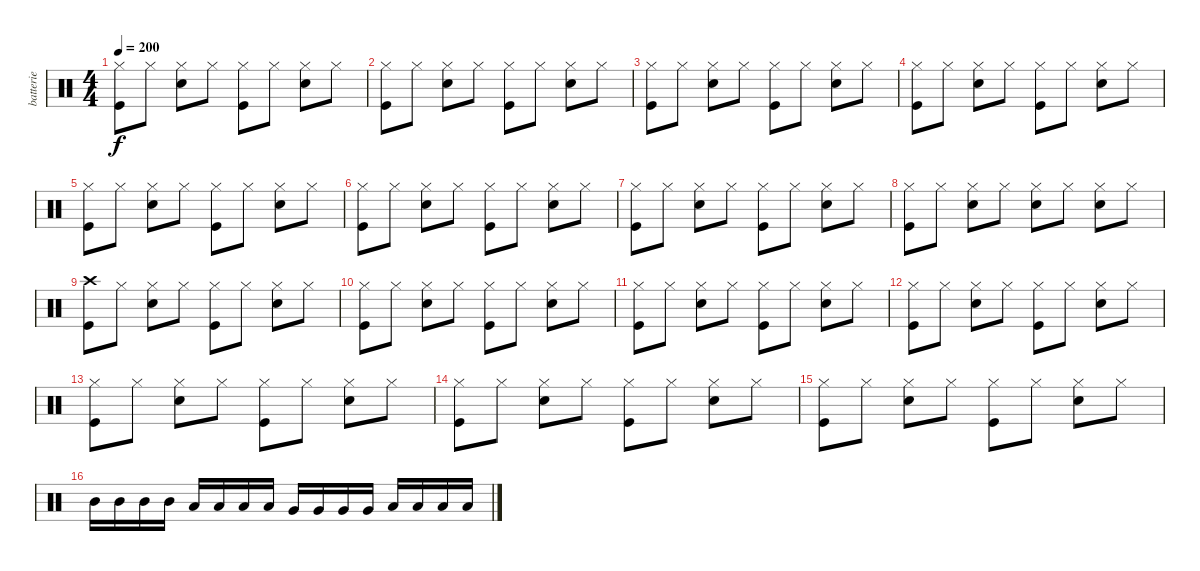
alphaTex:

\track ("batterie" "batterie") {instrument percussion}
\staff {score}
\articulation defaults
\ts (4 4)
\tempo 200
\clef neutral
\ks c
("Hi-Hat (closed)" "Kick (hit)").8{dy f} "Hi-Hat (closed)".8 ("Hi-Hat (closed)" "Electric Snare (hit)").8 "Hi-Hat (closed)".8 ("Hi-Hat (closed)" "Kick (hit)").8 "Hi-Hat (closed)".8 ("Hi-Hat (closed)" "Electric Snare (hit)").8 "Hi-Hat (closed)".8 |
("Hi-Hat (closed)" "Kick (hit)").8 "Hi-Hat (closed)".8 ("Hi-Hat (closed)" "Electric Snare (hit)").8 "Hi-Hat (closed)".8 ("Hi-Hat (closed)" "Kick (hit)").8 "Hi-Hat (closed)".8 ("Hi-Hat (closed)" "Electric Snare (hit)").8 "Hi-Hat (closed)".8 |
("Hi-Hat (closed)" "Kick (hit)").8 "Hi-Hat (closed)".8 ("Hi-Hat (closed)" "Electric Snare (hit)").8 "Hi-Hat (closed)".8 ("Hi-Hat (closed)" "Kick (hit)").8 "Hi-Hat (closed)".8 ("Hi-Hat (closed)" "Electric Snare (hit)").8 "Hi-Hat (closed)".8 |
("Hi-Hat (closed)" "Kick (hit)").8 "Hi-Hat (closed)".8 ("Hi-Hat (closed)" "Electric Snare (hit)").8 "Hi-Hat (closed)".8 ("Hi-Hat (closed)" "Kick (hit)").8 "Hi-Hat (closed)".8 ("Hi-Hat (closed)" "Electric Snare (hit)").8 "Hi-Hat (closed)".8 |
("Hi-Hat (closed)" "Kick (hit)").8 "Hi-Hat (closed)".8 ("Hi-Hat (closed)" "Electric Snare (hit)").8 "Hi-Hat (closed)".8 ("Hi-Hat (closed)" "Kick (hit)").8 "Hi-Hat (closed)".8 ("Hi-Hat (closed)" "Electric Snare (hit)").8 "Hi-Hat (closed)".8 |
("Hi-Hat (closed)" "Kick (hit)").8 "Hi-Hat (closed)".8 ("Hi-Hat (closed)" "Electric Snare (hit)").8 "Hi-Hat (closed)".8 ("Hi-Hat (closed)" "Kick (hit)").8 "Hi-Hat (closed)".8 ("Hi-Hat (closed)" "Electric Snare (hit)").8 "Hi-Hat (closed)".8 |
("Hi-Hat (closed)" "Kick (hit)").8 "Hi-Hat (closed)".8 ("Hi-Hat (closed)" "Electric Snare (hit)").8 "Hi-Hat (closed)".8 ("Hi-Hat (closed)" "Kick (hit)").8 "Hi-Hat (closed)".8 ("Hi-Hat (closed)" "Electric Snare (hit)").8 "Hi-Hat (closed)".8 |
("Hi-Hat (closed)" "Kick (hit)").8 "Hi-Hat (closed)".8 ("Hi-Hat (closed)" "Electric Snare (hit)").8 "Hi-Hat (closed)".8 ("Hi-Hat (closed)" "Electric Snare (hit)").8 "Hi-Hat (closed)".8 ("Hi-Hat (closed)" "Electric Snare (hit)").8 "Hi-Hat (closed)".8 |
("Crash high (hit)" "Kick (hit)").8 "Hi-Hat (closed)".8 ("Hi-Hat (closed)" "Electric Snare (hit)").8 "Hi-Hat (closed)".8 ("Hi-Hat (closed)" "Kick (hit)").8 "Hi-Hat (closed)".8 ("Hi-Hat (closed)" "Electric Snare (hit)").8 "Hi-Hat (closed)".8 |
("Hi-Hat (closed)" "Kick (hit)").8 "Hi-Hat (closed)".8 ("Hi-Hat (closed)" "Electric Snare (hit)").8 "Hi-Hat (closed)".8 ("Hi-Hat (closed)" "Kick (hit)").8 "Hi-Hat (closed)".8 ("Hi-Hat (closed)" "Electric Snare (hit)").8 "Hi-Hat (closed)".8 |
("Hi-Hat (closed)" "Kick (hit)").8 "Hi-Hat (closed)".8 ("Hi-Hat (closed)" "Electric Snare (hit)").8 "Hi-Hat (closed)".8 ("Hi-Hat (closed)" "Kick (hit)").8 "Hi-Hat (closed)".8 ("Hi-Hat (closed)" "Electric Snare (hit)").8 "Hi-Hat (closed)".8 |
("Hi-Hat (closed)" "Kick (hit)").8 "Hi-Hat (closed)".8 ("Hi-Hat (closed)" "Electric Snare (hit)").8 "Hi-Hat (closed)".8 ("Hi-Hat (closed)" "Kick (hit)").8 "Hi-Hat (closed)".8 ("Hi-Hat (closed)" "Electric Snare (hit)").8 "Hi-Hat (closed)".8 |
("Hi-Hat (closed)" "Kick (hit)").8 "Hi-Hat (closed)".8 ("Hi-Hat (closed)" "Electric Snare (hit)").8 "Hi-Hat (closed)".8 ("Hi-Hat (closed)" "Kick (hit)").8 "Hi-Hat (closed)".8 ("Hi-Hat (closed)" "Electric Snare (hit)").8 "Hi-Hat (closed)".8 |
("Hi-Hat (closed)" "Kick (hit)").8 "Hi-Hat (closed)".8 ("Hi-Hat (closed)" "Electric Snare (hit)").8 "Hi-Hat (closed)".8 ("Hi-Hat (closed)" "Kick (hit)").8 "Hi-Hat (closed)".8 ("Hi-Hat (closed)" "Electric Snare (hit)").8 "Hi-Hat (closed)".8 |
("Hi-Hat (closed)" "Kick (hit)").8 "Hi-Hat (closed)".8 ("Hi-Hat (closed)" "Electric Snare (hit)").8 "Hi-Hat (closed)".8 ("Hi-Hat (closed)" "Kick (hit)").8 "Hi-Hat (closed)".8 ("Hi-Hat (closed)" "Electric Snare (hit)").8 "Hi-Hat (closed)".8 |
"Mid Tom (hit)".16 "Mid Tom (hit)".16 "Mid Tom (hit)".16 "Mid Tom (hit)".16 "Low Tom (hit)".16 "Low Tom (hit)".16 "Low Tom (hit)".16 "Low Tom (hit)".16 "Very Low Tom (hit)".16 "Very Low Tom (hit)".16 "Very Low Tom (hit)".16 "Very Low Tom (hit)".16 "Low Floor Tom (hit)".16 "Low Floor Tom (hit)".16 "Low Floor Tom (hit)".16 "Low Floor Tom (hit)".16
